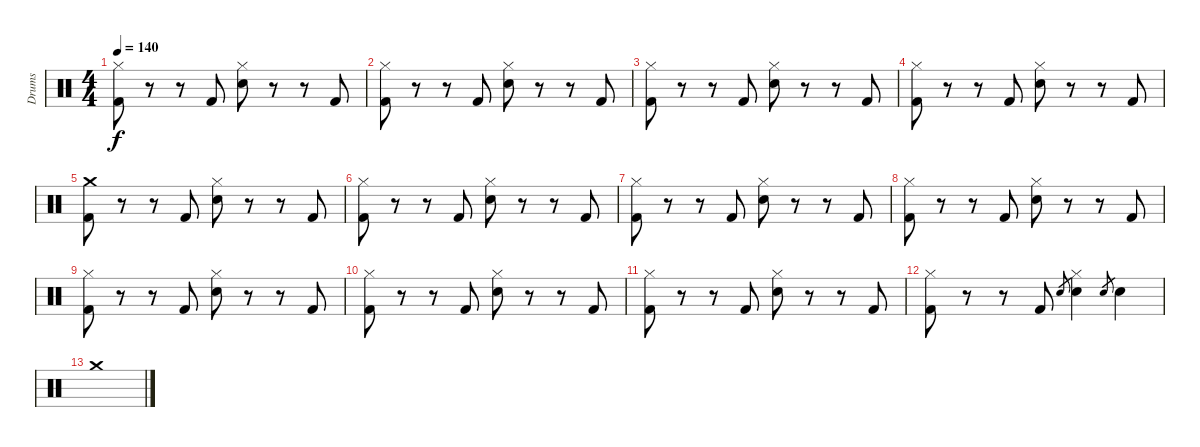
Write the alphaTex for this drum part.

\track ("Drums" "Drums") {instrument percussion}
\staff {score}
\articulation defaults
\ts (4 4)
\tempo 140
\clef neutral
\ks c
("Hi-Hat (closed)" "Kick (hit) 2").8{dy f} r.8 r.8 "Kick (hit) 2".8 ("Hi-Hat (closed)" "Snare (hit) 2").8 r.8 r.8 "Kick (hit) 2".8 |
("Hi-Hat (closed)" "Kick (hit) 2").8 r.8 r.8 "Kick (hit) 2".8 ("Hi-Hat (closed)" "Snare (hit) 2").8 r.8 r.8 "Kick (hit) 2".8 |
("Hi-Hat (closed)" "Kick (hit) 2").8 r.8 r.8 "Kick (hit) 2".8 ("Hi-Hat (closed)" "Snare (hit) 2").8 r.8 r.8 "Kick (hit) 2".8 |
("Hi-Hat (closed)" "Kick (hit) 2").8 r.8 r.8 "Kick (hit) 2".8 ("Hi-Hat (closed)" "Snare (hit) 2").8 r.8 r.8 "Kick (hit) 2".8 |
("Crash medium (hit)" "Kick (hit) 2").8 r.8 r.8 "Kick (hit) 2".8 ("Hi-Hat (closed)" "Snare (hit) 2").8 r.8 r.8 "Kick (hit) 2".8 |
("Hi-Hat (closed)" "Kick (hit) 2").8 r.8 r.8 "Kick (hit) 2".8 ("Hi-Hat (closed)" "Snare (hit) 2").8 r.8 r.8 "Kick (hit) 2".8 |
("Hi-Hat (closed)" "Kick (hit) 2").8 r.8 r.8 "Kick (hit) 2".8 ("Hi-Hat (closed)" "Snare (hit) 2").8 r.8 r.8 "Kick (hit) 2".8 |
("Hi-Hat (closed)" "Kick (hit) 2").8 r.8 r.8 "Kick (hit) 2".8 ("Hi-Hat (closed)" "Snare (hit) 2").8 r.8 r.8 "Kick (hit) 2".8 |
("Hi-Hat (closed)" "Kick (hit) 2").8 r.8 r.8 "Kick (hit) 2".8 ("Hi-Hat (closed)" "Snare (hit) 2").8 r.8 r.8 "Kick (hit) 2".8 |
("Hi-Hat (closed)" "Kick (hit) 2").8 r.8 r.8 "Kick (hit) 2".8 ("Hi-Hat (closed)" "Snare (hit) 2").8 r.8 r.8 "Kick (hit) 2".8 |
("Hi-Hat (closed)" "Kick (hit) 2").8 r.8 r.8 "Kick (hit) 2".8 ("Hi-Hat (closed)" "Snare (hit) 2").8 r.8 r.8 "Kick (hit) 2".8 |
("Hi-Hat (closed)" "Kick (hit) 2").8 r.8 r.8 "Kick (hit) 2".8 "Electric Snare (hit)".8{gr} ("Hi-Hat (closed)" "Electric Snare (hit)").4 "Electric Snare (hit)".8{gr} "Electric Snare (hit)".4 |
"Crash medium (hit)".1
